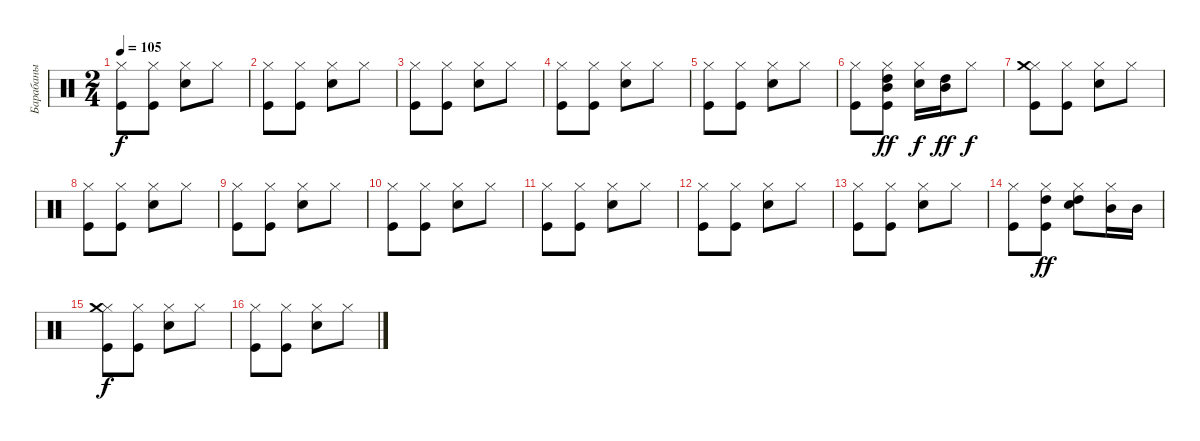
\track ("Барабаны" "Барабаны") {instrument percussion}
\staff {score}
\articulation defaults
\ts (2 4)
\tempo 105
\clef neutral
\ks c
("Kick (hit)" "Hi-Hat (closed)").8{dy f} ("Kick (hit)" "Hi-Hat (closed)").8 ("Snare (hit) 2" "Hi-Hat (closed)").8 "Hi-Hat (closed)".8 |
("Kick (hit)" "Hi-Hat (closed)").8 ("Kick (hit)" "Hi-Hat (closed)").8 ("Snare (hit) 2" "Hi-Hat (closed)").8 "Hi-Hat (closed)".8 |
("Kick (hit)" "Hi-Hat (closed)").8 ("Kick (hit)" "Hi-Hat (closed)").8 ("Snare (hit) 2" "Hi-Hat (closed)").8 "Hi-Hat (closed)".8 |
("Kick (hit)" "Hi-Hat (closed)").8 ("Kick (hit)" "Hi-Hat (closed)").8 ("Snare (hit) 2" "Hi-Hat (closed)").8 "Hi-Hat (closed)".8 |
("Kick (hit)" "Hi-Hat (closed)").8 ("Kick (hit)" "Hi-Hat (closed)").8 ("Snare (hit) 2" "Hi-Hat (closed)").8 "Hi-Hat (closed)".8 |
("Kick (hit)" "Hi-Hat (closed)").8 ("Kick (hit)" "Hi-Hat (closed)" "Mid Tom (hit)" "High Tom (hit)").8{dy ff} ("Snare (hit) 2" "Hi-Hat (closed)").16{dy f} ("Mid Tom (hit)" "High Tom (hit)").16{dy ff} "Hi-Hat (closed)".8{dy f} |
("Kick (hit)" "Hi-Hat (closed)" "Crash medium (hit)").8 ("Kick (hit)" "Hi-Hat (closed)").8 ("Snare (hit) 2" "Hi-Hat (closed)").8 "Hi-Hat (closed)".8 |
("Kick (hit)" "Hi-Hat (closed)").8 ("Kick (hit)" "Hi-Hat (closed)").8 ("Snare (hit) 2" "Hi-Hat (closed)").8 "Hi-Hat (closed)".8 |
("Kick (hit)" "Hi-Hat (closed)").8 ("Kick (hit)" "Hi-Hat (closed)").8 ("Snare (hit) 2" "Hi-Hat (closed)").8 "Hi-Hat (closed)".8 |
("Kick (hit)" "Hi-Hat (closed)").8 ("Kick (hit)" "Hi-Hat (closed)").8 ("Snare (hit) 2" "Hi-Hat (closed)").8 "Hi-Hat (closed)".8 |
("Kick (hit)" "Hi-Hat (closed)").8 ("Kick (hit)" "Hi-Hat (closed)").8 ("Snare (hit) 2" "Hi-Hat (closed)").8 "Hi-Hat (closed)".8 |
("Kick (hit)" "Hi-Hat (closed)").8 ("Kick (hit)" "Hi-Hat (closed)").8 ("Snare (hit) 2" "Hi-Hat (closed)").8 "Hi-Hat (closed)".8 |
("Kick (hit)" "Hi-Hat (closed)").8 ("Kick (hit)" "Hi-Hat (closed)").8 ("Snare (hit) 2" "Hi-Hat (closed)").8 "Hi-Hat (closed)".8 |
("Kick (hit)" "Hi-Hat (closed)").8 ("Kick (hit)" "Hi-Hat (closed)" "High Tom (hit)").8{dy ff} ("Snare (hit) 2" "Hi-Hat (closed)" "High Tom (hit)").8 ("Hi-Hat (closed)" "Mid Tom (hit)").16 "Mid Tom (hit)".16 |
("Kick (hit)" "Hi-Hat (closed)" "Crash medium (hit)").8{dy f} ("Kick (hit)" "Hi-Hat (closed)").8 ("Snare (hit) 2" "Hi-Hat (closed)").8 "Hi-Hat (closed)".8 |
("Kick (hit)" "Hi-Hat (closed)").8 ("Kick (hit)" "Hi-Hat (closed)").8 ("Snare (hit) 2" "Hi-Hat (closed)").8 "Hi-Hat (closed)".8
